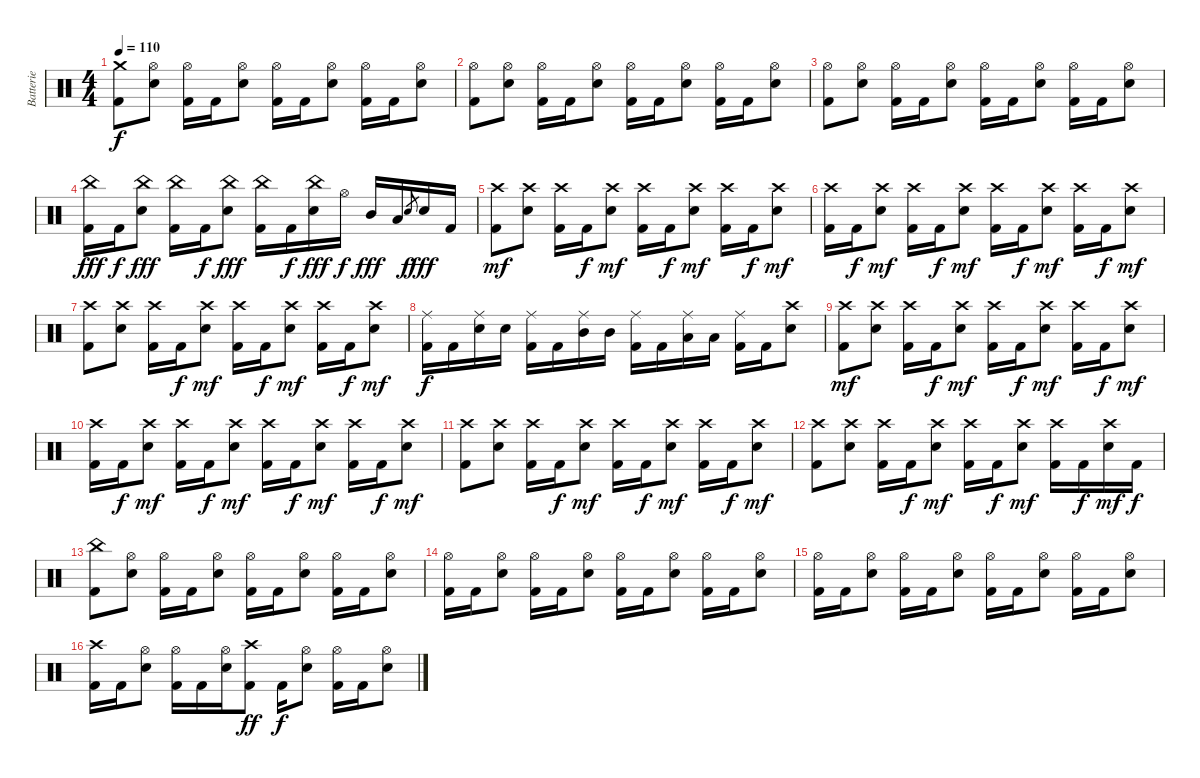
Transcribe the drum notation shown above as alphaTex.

\track ("Batterie" "Batterie") {instrument percussion}
\staff {score}
\articulation defaults
\ts (4 4)
\tempo 110
\clef neutral
\ks c
("Crash medium (hit)" "Kick (hit) 2").8{dy f} ("Hi-Hat (open)" "Snare (hit) 2").8 ("Hi-Hat (open)" "Kick (hit) 2").16 "Kick (hit) 2".16 ("Hi-Hat (open)" "Snare (hit) 2").8 ("Hi-Hat (open)" "Kick (hit) 2").16 "Kick (hit) 2".16 ("Hi-Hat (open)" "Snare (hit) 2").8 ("Hi-Hat (open)" "Kick (hit) 2").16 "Kick (hit) 2".16 ("Hi-Hat (open)" "Snare (hit) 2").8 |
("Hi-Hat (open)" "Kick (hit) 2").8 ("Hi-Hat (open)" "Snare (hit) 2").8 ("Hi-Hat (open)" "Kick (hit) 2").16 "Kick (hit) 2".16 ("Hi-Hat (open)" "Snare (hit) 2").8 ("Hi-Hat (open)" "Kick (hit) 2").16 "Kick (hit) 2".16 ("Hi-Hat (open)" "Snare (hit) 2").8 ("Hi-Hat (open)" "Kick (hit) 2").16 "Kick (hit) 2".16 ("Hi-Hat (open)" "Snare (hit) 2").8 |
("Hi-Hat (open)" "Kick (hit) 2").8 ("Hi-Hat (open)" "Snare (hit) 2").8 ("Hi-Hat (open)" "Kick (hit) 2").16 "Kick (hit) 2".16 ("Hi-Hat (open)" "Snare (hit) 2").8 ("Hi-Hat (open)" "Kick (hit) 2").16 "Kick (hit) 2".16 ("Hi-Hat (open)" "Snare (hit) 2").8 ("Hi-Hat (open)" "Kick (hit) 2").16 "Kick (hit) 2".16 ("Hi-Hat (open)" "Snare (hit) 2").8 |
("China (hit)" "Kick (hit) 2").16{dy fff} "Kick (hit) 2".16{dy f} ("China (hit)" "Snare (hit) 2").8{dy fff} ("China (hit)" "Kick (hit) 2").16 "Kick (hit) 2".16{dy f} ("China (hit)" "Snare (hit) 2").8{dy fff} ("China (hit)" "Kick (hit) 2").16 "Kick (hit) 2".16{dy f} ("China (hit)" "Snare (hit) 2").16{dy fff} "Hi-Hat (open)".16{dy f} "Mid Tom (hit)".16{dy fff} "Low Tom (hit)".16 "Snare (hit) 2".8{gr dy f} "Snare (hit) 2".16{dy fff} "Kick (hit) 2".16 |
("Crash high (hit)" "Kick (hit) 2").8{dy mf} ("Crash high (hit)" "Snare (hit) 2").8 ("Crash high (hit)" "Kick (hit) 2").16 "Kick (hit) 2".16{dy f} ("Crash high (hit)" "Snare (hit) 2").8{dy mf} ("Crash high (hit)" "Kick (hit) 2").16 "Kick (hit) 2".16{dy f} ("Crash high (hit)" "Snare (hit) 2").8{dy mf} ("Crash high (hit)" "Kick (hit) 2").16 "Kick (hit) 2".16{dy f} ("Crash high (hit)" "Snare (hit) 2").8{dy mf} |
("Crash high (hit)" "Kick (hit) 2").16 "Kick (hit) 2".16{dy f} ("Crash high (hit)" "Snare (hit) 2").8{dy mf} ("Crash high (hit)" "Kick (hit) 2").16 "Kick (hit) 2".16{dy f} ("Crash high (hit)" "Snare (hit) 2").8{dy mf} ("Crash high (hit)" "Kick (hit) 2").16 "Kick (hit) 2".16{dy f} ("Crash high (hit)" "Snare (hit) 2").8{dy mf} ("Crash high (hit)" "Kick (hit) 2").16 "Kick (hit) 2".16{dy f} ("Crash high (hit)" "Snare (hit) 2").8{dy mf} |
("Crash high (hit)" "Kick (hit) 2").8 ("Crash high (hit)" "Snare (hit) 2").8 ("Crash high (hit)" "Kick (hit) 2").16 "Kick (hit) 2".16{dy f} ("Crash high (hit)" "Snare (hit) 2").8{dy mf} ("Crash high (hit)" "Kick (hit) 2").16 "Kick (hit) 2".16{dy f} ("Crash high (hit)" "Snare (hit) 2").8{dy mf} ("Crash high (hit)" "Kick (hit) 2").16 "Kick (hit) 2".16{dy f} ("Crash high (hit)" "Snare (hit) 2").8{dy mf} |
("Ride (middle)" "Kick (hit) 2").16{dy f} "Kick (hit) 2".16 ("Ride (middle)" "Snare (hit) 2").16 "Snare (hit) 2".16 ("Ride (middle)" "Kick (hit) 2").16 "Kick (hit) 2".16 ("Ride (middle)" "Mid Tom (hit)").16 "Mid Tom (hit)".16 ("Ride (middle)" "Kick (hit) 2").16 "Kick (hit) 2".16 ("Ride (middle)" "Low Tom (hit)").16 "Low Tom (hit)".16 ("Ride (middle)" "Kick (hit) 2").16 "Kick (hit) 2".16 ("Crash high (hit)" "Snare (hit) 2").8 |
("Crash high (hit)" "Kick (hit) 2").8{dy mf} ("Crash high (hit)" "Snare (hit) 2").8 ("Crash high (hit)" "Kick (hit) 2").16 "Kick (hit) 2".16{dy f} ("Crash high (hit)" "Snare (hit) 2").8{dy mf} ("Crash high (hit)" "Kick (hit) 2").16 "Kick (hit) 2".16{dy f} ("Crash high (hit)" "Snare (hit) 2").8{dy mf} ("Crash high (hit)" "Kick (hit) 2").16 "Kick (hit) 2".16{dy f} ("Crash high (hit)" "Snare (hit) 2").8{dy mf} |
("Crash high (hit)" "Kick (hit) 2").16 "Kick (hit) 2".16{dy f} ("Crash high (hit)" "Snare (hit) 2").8{dy mf} ("Crash high (hit)" "Kick (hit) 2").16 "Kick (hit) 2".16{dy f} ("Crash high (hit)" "Snare (hit) 2").8{dy mf} ("Crash high (hit)" "Kick (hit) 2").16 "Kick (hit) 2".16{dy f} ("Crash high (hit)" "Snare (hit) 2").8{dy mf} ("Crash high (hit)" "Kick (hit) 2").16 "Kick (hit) 2".16{dy f} ("Crash high (hit)" "Snare (hit) 2").8{dy mf} |
("Crash high (hit)" "Kick (hit) 2").8 ("Crash high (hit)" "Snare (hit) 2").8 ("Crash high (hit)" "Kick (hit) 2").16 "Kick (hit) 2".16{dy f} ("Crash high (hit)" "Snare (hit) 2").8{dy mf} ("Crash high (hit)" "Kick (hit) 2").16 "Kick (hit) 2".16{dy f} ("Crash high (hit)" "Snare (hit) 2").8{dy mf} ("Crash high (hit)" "Kick (hit) 2").16 "Kick (hit) 2".16{dy f} ("Crash high (hit)" "Snare (hit) 2").8{dy mf} |
("Crash high (hit)" "Kick (hit) 2").8 ("Crash high (hit)" "Snare (hit) 2").8 ("Crash high (hit)" "Kick (hit) 2").16 "Kick (hit) 2".16{dy f} ("Crash high (hit)" "Snare (hit) 2").8{dy mf} ("Crash high (hit)" "Kick (hit) 2").16 "Kick (hit) 2".16{dy f} ("Crash high (hit)" "Snare (hit) 2").8{dy mf} ("Crash high (hit)" "Kick (hit) 2").16 "Kick (hit) 2".16{dy f} ("Crash high (hit)" "Snare (hit) 2").16{dy mf} "Kick (hit) 2".16{dy f} |
("China (hit)" "Kick (hit) 2").8 ("Hi-Hat (open)" "Snare (hit) 2").8 ("Hi-Hat (open)" "Kick (hit) 2").16 "Kick (hit) 2".16 ("Hi-Hat (open)" "Snare (hit) 2").8 ("Hi-Hat (open)" "Kick (hit) 2").16 "Kick (hit) 2".16 ("Hi-Hat (open)" "Snare (hit) 2").8 ("Hi-Hat (open)" "Kick (hit) 2").16 "Kick (hit) 2".16 ("Hi-Hat (open)" "Snare (hit) 2").8 |
("Hi-Hat (open)" "Kick (hit) 2").16 "Kick (hit) 2".16 ("Hi-Hat (open)" "Snare (hit) 2").8 ("Hi-Hat (open)" "Kick (hit) 2").16 "Kick (hit) 2".16 ("Hi-Hat (open)" "Snare (hit) 2").8 ("Hi-Hat (open)" "Kick (hit) 2").16 "Kick (hit) 2".16 ("Hi-Hat (open)" "Snare (hit) 2").8 ("Hi-Hat (open)" "Kick (hit) 2").16 "Kick (hit) 2".16 ("Hi-Hat (open)" "Snare (hit) 2").8 |
("Hi-Hat (open)" "Kick (hit) 2").16 "Kick (hit) 2".16 ("Hi-Hat (open)" "Snare (hit) 2").8 ("Hi-Hat (open)" "Kick (hit) 2").16 "Kick (hit) 2".16 ("Hi-Hat (open)" "Snare (hit) 2").8 ("Hi-Hat (open)" "Kick (hit) 2").16 "Kick (hit) 2".16 ("Hi-Hat (open)" "Snare (hit) 2").8 ("Hi-Hat (open)" "Kick (hit) 2").16 "Kick (hit) 2".16 ("Hi-Hat (open)" "Snare (hit) 2").8 |
("Crash high (hit)" "Kick (hit) 2").16 "Kick (hit) 2".16 ("Hi-Hat (open)" "Snare (hit) 2").8 ("Hi-Hat (open)" "Kick (hit) 2").16 "Kick (hit) 2".16 ("Hi-Hat (open)" "Snare (hit) 2").16 ("Crash high (hit)" "Kick (hit) 2").8{dy ff} "Kick (hit) 2".16{dy f} ("Hi-Hat (open)" "Snare (hit) 2").8 ("Hi-Hat (open)" "Kick (hit) 2").16 "Kick (hit) 2".16 ("Hi-Hat (open)" "Snare (hit) 2").8
